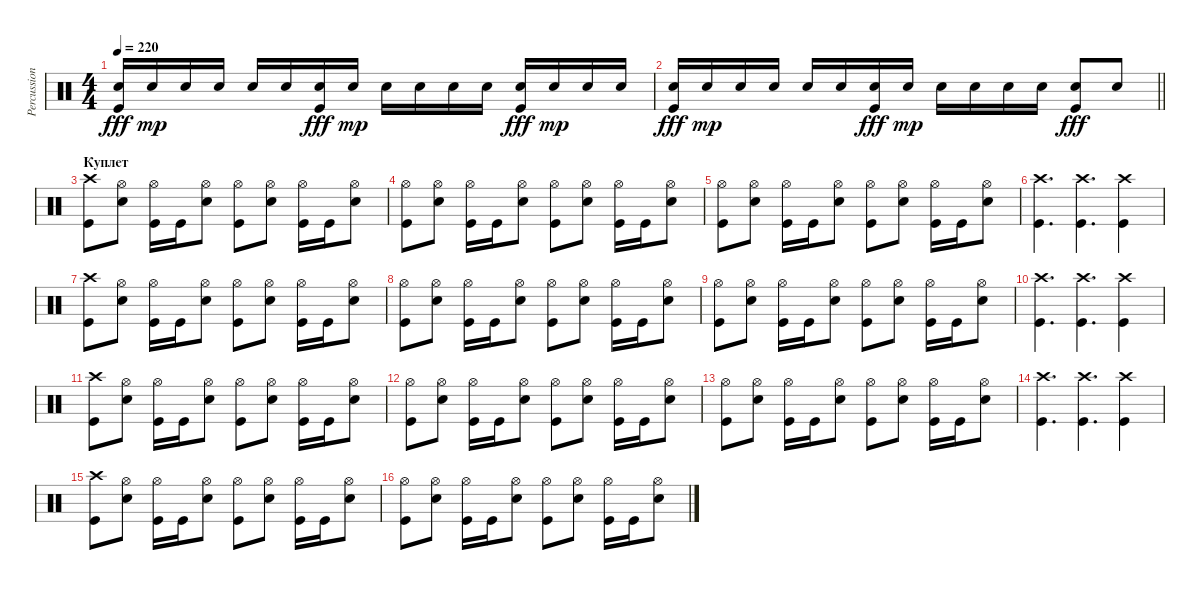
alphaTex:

\track ("Percussion" "Percussion") {instrument percussion}
\staff {score}
\articulation defaults
\ts (4 4)
\tempo 220
\clef neutral
\ks c
("Snare (hit) 2" "Kick (hit)").16{dy fff} "Snare (hit) 2".16{dy mp} "Snare (hit) 2".16 "Snare (hit) 2".16 "Snare (hit) 2".16 "Snare (hit) 2".16 ("Snare (hit) 2" "Kick (hit)").16{dy fff} "Snare (hit) 2".16{dy mp} "Snare (hit) 2".16 "Snare (hit) 2".16 "Snare (hit) 2".16 "Snare (hit) 2".16 ("Snare (hit) 2" "Kick (hit)").16{dy fff} "Snare (hit) 2".16{dy mp} "Snare (hit) 2".16 "Snare (hit) 2".16 |
\barLineRight lightlight
("Snare (hit) 2" "Kick (hit)").16{dy fff} "Snare (hit) 2".16{dy mp} "Snare (hit) 2".16 "Snare (hit) 2".16 "Snare (hit) 2".16 "Snare (hit) 2".16 ("Snare (hit) 2" "Kick (hit)").16{dy fff} "Snare (hit) 2".16{dy mp} "Snare (hit) 2".16 "Snare (hit) 2".16 "Snare (hit) 2".16 "Snare (hit) 2".16 ("Snare (hit) 2" "Kick (hit)").8{dy fff} "Snare (hit) 2".8 |
\section ("" "Куплет")
("Crash high (hit)" "Kick (hit)").8 ("Hi-Hat (open)" "Snare (hit) 2").8 ("Hi-Hat (open)" "Kick (hit)").16 "Kick (hit)".16 ("Hi-Hat (open)" "Snare (hit) 2").8 ("Hi-Hat (open)" "Kick (hit)").8 ("Hi-Hat (open)" "Snare (hit) 2").8 ("Hi-Hat (open)" "Kick (hit)").16 "Kick (hit)".16 ("Hi-Hat (open)" "Snare (hit) 2").8 |
("Hi-Hat (open)" "Kick (hit)").8 ("Hi-Hat (open)" "Snare (hit) 2").8 ("Hi-Hat (open)" "Kick (hit)").16 "Kick (hit)".16 ("Hi-Hat (open)" "Snare (hit) 2").8 ("Hi-Hat (open)" "Kick (hit)").8 ("Hi-Hat (open)" "Snare (hit) 2").8 ("Hi-Hat (open)" "Kick (hit)").16 "Kick (hit)".16 ("Hi-Hat (open)" "Snare (hit) 2").8 |
("Hi-Hat (open)" "Kick (hit)").8 ("Hi-Hat (open)" "Snare (hit) 2").8 ("Hi-Hat (open)" "Kick (hit)").16 "Kick (hit)".16 ("Hi-Hat (open)" "Snare (hit) 2").8 ("Hi-Hat (open)" "Kick (hit)").8 ("Hi-Hat (open)" "Snare (hit) 2").8 ("Hi-Hat (open)" "Kick (hit)").16 "Kick (hit)".16 ("Hi-Hat (open)" "Snare (hit) 2").8 |
("Crash high (hit)" "Kick (hit)").4{d} ("Crash high (hit)" "Kick (hit)").4{d} ("Crash high (hit)" "Kick (hit)").4 |
("Crash high (hit)" "Kick (hit)").8 ("Hi-Hat (open)" "Snare (hit) 2").8 ("Hi-Hat (open)" "Kick (hit)").16 "Kick (hit)".16 ("Hi-Hat (open)" "Snare (hit) 2").8 ("Hi-Hat (open)" "Kick (hit)").8 ("Hi-Hat (open)" "Snare (hit) 2").8 ("Hi-Hat (open)" "Kick (hit)").16 "Kick (hit)".16 ("Hi-Hat (open)" "Snare (hit) 2").8 |
("Hi-Hat (open)" "Kick (hit)").8 ("Hi-Hat (open)" "Snare (hit) 2").8 ("Hi-Hat (open)" "Kick (hit)").16 "Kick (hit)".16 ("Hi-Hat (open)" "Snare (hit) 2").8 ("Hi-Hat (open)" "Kick (hit)").8 ("Hi-Hat (open)" "Snare (hit) 2").8 ("Hi-Hat (open)" "Kick (hit)").16 "Kick (hit)".16 ("Hi-Hat (open)" "Snare (hit) 2").8 |
("Hi-Hat (open)" "Kick (hit)").8 ("Hi-Hat (open)" "Snare (hit) 2").8 ("Hi-Hat (open)" "Kick (hit)").16 "Kick (hit)".16 ("Hi-Hat (open)" "Snare (hit) 2").8 ("Hi-Hat (open)" "Kick (hit)").8 ("Hi-Hat (open)" "Snare (hit) 2").8 ("Hi-Hat (open)" "Kick (hit)").16 "Kick (hit)".16 ("Hi-Hat (open)" "Snare (hit) 2").8 |
("Crash high (hit)" "Kick (hit)").4{d} ("Crash high (hit)" "Kick (hit)").4{d} ("Crash high (hit)" "Kick (hit)").4 |
("Crash high (hit)" "Kick (hit)").8 ("Hi-Hat (open)" "Snare (hit) 2").8 ("Hi-Hat (open)" "Kick (hit)").16 "Kick (hit)".16 ("Hi-Hat (open)" "Snare (hit) 2").8 ("Hi-Hat (open)" "Kick (hit)").8 ("Hi-Hat (open)" "Snare (hit) 2").8 ("Hi-Hat (open)" "Kick (hit)").16 "Kick (hit)".16 ("Hi-Hat (open)" "Snare (hit) 2").8 |
("Hi-Hat (open)" "Kick (hit)").8 ("Hi-Hat (open)" "Snare (hit) 2").8 ("Hi-Hat (open)" "Kick (hit)").16 "Kick (hit)".16 ("Hi-Hat (open)" "Snare (hit) 2").8 ("Hi-Hat (open)" "Kick (hit)").8 ("Hi-Hat (open)" "Snare (hit) 2").8 ("Hi-Hat (open)" "Kick (hit)").16 "Kick (hit)".16 ("Hi-Hat (open)" "Snare (hit) 2").8 |
("Hi-Hat (open)" "Kick (hit)").8 ("Hi-Hat (open)" "Snare (hit) 2").8 ("Hi-Hat (open)" "Kick (hit)").16 "Kick (hit)".16 ("Hi-Hat (open)" "Snare (hit) 2").8 ("Hi-Hat (open)" "Kick (hit)").8 ("Hi-Hat (open)" "Snare (hit) 2").8 ("Hi-Hat (open)" "Kick (hit)").16 "Kick (hit)".16 ("Hi-Hat (open)" "Snare (hit) 2").8 |
("Crash high (hit)" "Kick (hit)").4{d} ("Crash high (hit)" "Kick (hit)").4{d} ("Crash high (hit)" "Kick (hit)").4 |
("Crash high (hit)" "Kick (hit)").8 ("Hi-Hat (open)" "Snare (hit) 2").8 ("Hi-Hat (open)" "Kick (hit)").16 "Kick (hit)".16 ("Hi-Hat (open)" "Snare (hit) 2").8 ("Hi-Hat (open)" "Kick (hit)").8 ("Hi-Hat (open)" "Snare (hit) 2").8 ("Hi-Hat (open)" "Kick (hit)").16 "Kick (hit)".16 ("Hi-Hat (open)" "Snare (hit) 2").8 |
("Hi-Hat (open)" "Kick (hit)").8 ("Hi-Hat (open)" "Snare (hit) 2").8 ("Hi-Hat (open)" "Kick (hit)").16 "Kick (hit)".16 ("Hi-Hat (open)" "Snare (hit) 2").8 ("Hi-Hat (open)" "Kick (hit)").8 ("Hi-Hat (open)" "Snare (hit) 2").8 ("Hi-Hat (open)" "Kick (hit)").16 "Kick (hit)".16 ("Hi-Hat (open)" "Snare (hit) 2").8
